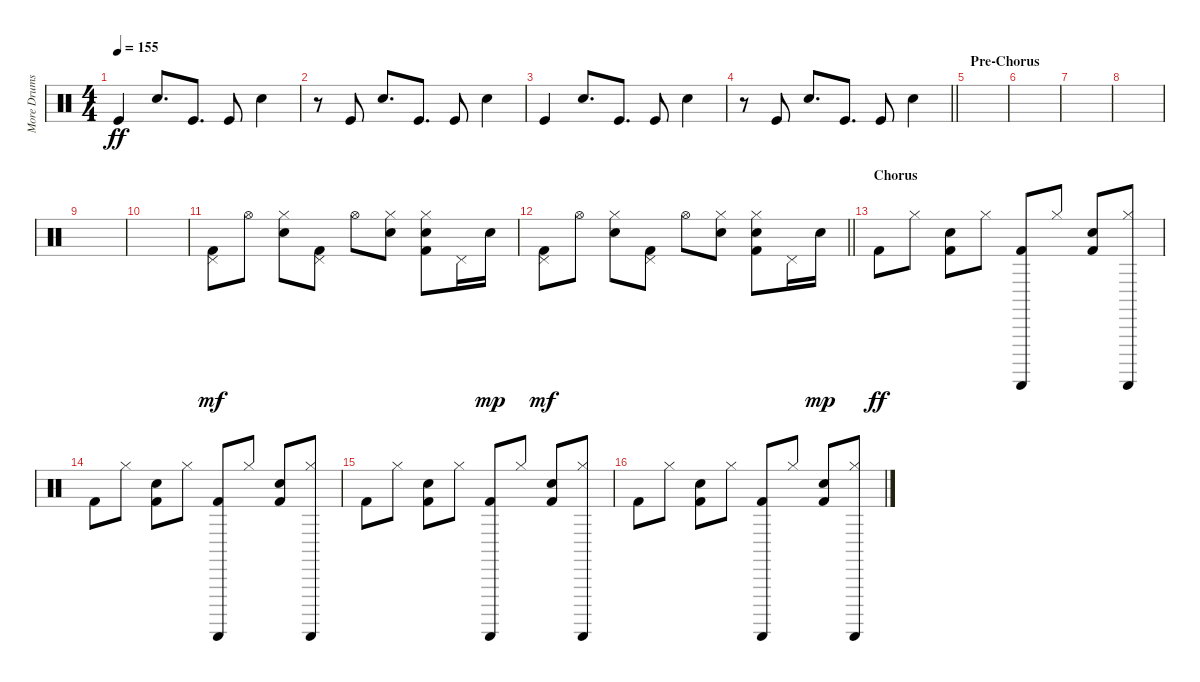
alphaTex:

\track ("More Drums" "More Drums") {instrument percussion}
\staff {score}
\articulation defaults
\ts (4 4)
\tempo 155
\clef neutral
\ks c "Kick (hit)".4{dy ff} "Electric Snare (hit)".8{d} "Kick (hit)".8{d} "Kick (hit)".8 "Electric Snare (hit)".4
|
r.8 "Kick (hit)".8 "Electric Snare (hit)".8{d} "Kick (hit)".8{d} "Kick (hit)".8 "Electric Snare (hit)".4 |
"Kick (hit)".4 "Electric Snare (hit)".8{d} "Kick (hit)".8{d} "Kick (hit)".8 "Electric Snare (hit)".4 |
\barLineRight lightlight
r.8 "Kick (hit)".8 "Electric Snare (hit)".8{d} "Kick (hit)".8{d} "Kick (hit)".8 "Electric Snare (hit)".4 |
\section ("" "Pre-Chorus")
|
|
|
|
|
|
("Kick (hit) 2" "Pedal Hi-Hat (hit)").8{dy mf} "Hi-Hat (open)".8 ("Snare (hit) 2" "Hi-Hat (closed)").8 ("Kick (hit) 2" "Pedal Hi-Hat (hit)").8 "Hi-Hat (open)".8 ("Snare (hit) 2" "Hi-Hat (closed)").8 ("Kick (hit) 2" "Snare (hit) 2" "Hi-Hat (closed)").8 "Pedal Hi-Hat (hit)".16 "Snare (hit) 2".16{dy mp} |
\barLineRight lightlight
("Kick (hit) 2" "Pedal Hi-Hat (hit)").8{dy mf} "Hi-Hat (open)".8 ("Snare (hit) 2" "Hi-Hat (closed)").8 ("Kick (hit) 2" "Pedal Hi-Hat (hit)").8 "Hi-Hat (open)".8 ("Snare (hit) 2" "Hi-Hat (closed)").8 ("Kick (hit) 2" "Snare (hit) 2" "Hi-Hat (closed)").8 "Pedal Hi-Hat (hit)".16 "Snare (hit) 2".16{dy mp} |
\section ("" "Chorus")
"Kick (hit) 2".8{dy ff} "Hi-Hat (closed)".8 ("Kick (hit) 2" "Electric Snare (hit)").8 "Hi-Hat (closed)".8 ("Kick (hit) 2" "Guiro (scrap-return)").8 "Hi-Hat (closed)".8 ("Kick (hit) 2" "Electric Snare (hit)").8 ("Hi-Hat (closed)" "Guiro (scrap-return)").8 |
"Kick (hit) 2".8 "Hi-Hat (closed)".8 ("Kick (hit) 2" "Electric Snare (hit)").8 "Hi-Hat (closed)".8 ("Kick (hit) 2" "Guiro (scrap-return)").8 "Hi-Hat (closed)".8 ("Kick (hit) 2" "Electric Snare (hit)").8 ("Hi-Hat (closed)" "Guiro (scrap-return)").8 |
"Kick (hit) 2".8 "Hi-Hat (closed)".8 ("Kick (hit) 2" "Electric Snare (hit)").8 "Hi-Hat (closed)".8 ("Kick (hit) 2" "Guiro (scrap-return)").8 "Hi-Hat (closed)".8 ("Kick (hit) 2" "Electric Snare (hit)").8 ("Hi-Hat (closed)" "Guiro (scrap-return)").8 |
"Kick (hit) 2".8 "Hi-Hat (closed)".8 ("Kick (hit) 2" "Electric Snare (hit)").8 "Hi-Hat (closed)".8 ("Kick (hit) 2" "Guiro (scrap-return)").8 "Hi-Hat (closed)".8 ("Kick (hit) 2" "Electric Snare (hit)").8 ("Hi-Hat (closed)" "Guiro (scrap-return)").8
